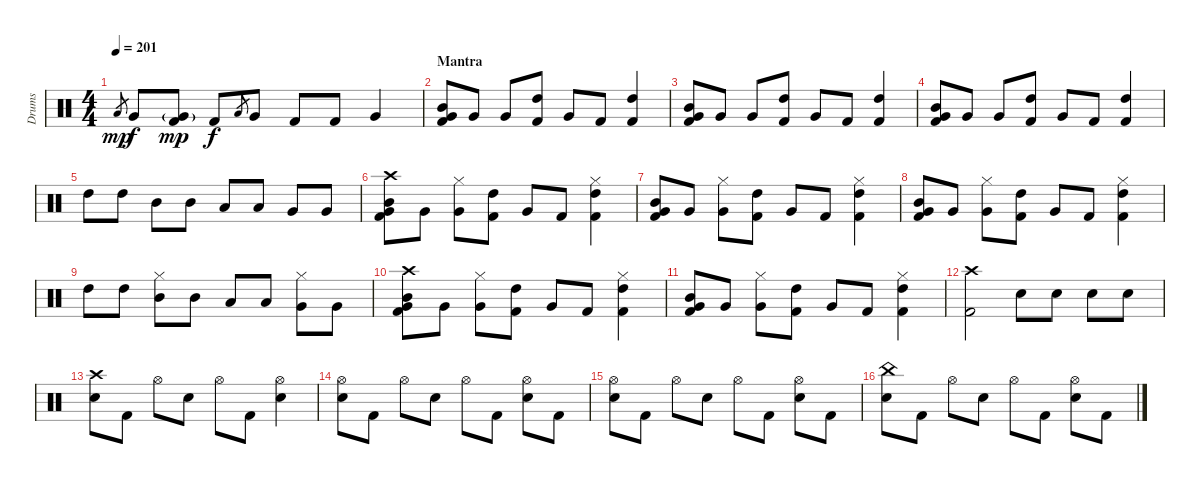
\track ("Drums" "Drums") {instrument percussion}
\staff {score}
\articulation defaults
\ts (4 4)
\tempo 201
\clef neutral
\ks c "Low Tom (hit)".8{gr dy mp} "Very Low Tom (hit)".8{dy f}
("Very Low Tom (hit)"{g} "Kick (hit) 2").8{dy mp} "Kick (hit) 2".8{dy f} "Low Tom (hit)".8{gr} "Very Low Tom (hit)".8 "Kick (hit) 2".8 "Kick (hit) 2".8 "Very Low Tom (hit)".4 |
\section ("" "Mantra")
("Mid Tom (hit)" "Very Low Tom (hit)" "Kick (hit) 2").8 "Very Low Tom (hit)".8 "Very Low Tom (hit)".8 ("High Tom (hit)" "Kick (hit) 2").8 "Very Low Tom (hit)".8 "Kick (hit) 2".8 ("High Tom (hit)" "Kick (hit) 2").4 |
("Mid Tom (hit)" "Very Low Tom (hit)" "Kick (hit) 2").8 "Very Low Tom (hit)".8 "Very Low Tom (hit)".8 ("High Tom (hit)" "Kick (hit) 2").8 "Very Low Tom (hit)".8 "Kick (hit) 2".8 ("High Tom (hit)" "Kick (hit) 2").4 |
("Mid Tom (hit)" "Very Low Tom (hit)" "Kick (hit) 2").8 "Very Low Tom (hit)".8 "Very Low Tom (hit)".8 ("High Tom (hit)" "Kick (hit) 2").8 "Very Low Tom (hit)".8 "Kick (hit) 2".8 ("High Tom (hit)" "Kick (hit) 2").4 |
"High Tom (hit)".8 "High Tom (hit)".8 "Mid Tom (hit)".8 "Mid Tom (hit)".8 "Low Tom (hit)".8 "Low Tom (hit)".8 "Very Low Tom (hit)".8 "Very Low Tom (hit)".8 |
("Crash high (hit)" "Mid Tom (hit)" "Very Low Tom (hit)" "Kick (hit) 2").8 "Very Low Tom (hit)".8 ("Hi-Hat (closed)" "Very Low Tom (hit)").8 ("High Tom (hit)" "Kick (hit) 2").8 "Very Low Tom (hit)".8 "Kick (hit) 2".8 ("Hi-Hat (closed)" "High Tom (hit)" "Kick (hit) 2").4 |
("Mid Tom (hit)" "Very Low Tom (hit)" "Kick (hit) 2").8 "Very Low Tom (hit)".8 ("Hi-Hat (closed)" "Very Low Tom (hit)").8 ("High Tom (hit)" "Kick (hit) 2").8 "Very Low Tom (hit)".8 "Kick (hit) 2".8 ("Hi-Hat (closed)" "High Tom (hit)" "Kick (hit) 2").4 |
("Mid Tom (hit)" "Very Low Tom (hit)" "Kick (hit) 2").8 "Very Low Tom (hit)".8 ("Hi-Hat (closed)" "Very Low Tom (hit)").8 ("High Tom (hit)" "Kick (hit) 2").8 "Very Low Tom (hit)".8 "Kick (hit) 2".8 ("Hi-Hat (closed)" "High Tom (hit)" "Kick (hit) 2").4 |
"High Tom (hit)".8 "High Tom (hit)".8 ("Hi-Hat (closed)" "Mid Tom (hit)").8 "Mid Tom (hit)".8 "Low Tom (hit)".8 "Low Tom (hit)".8 ("Hi-Hat (closed)" "Very Low Tom (hit)").8 "Very Low Tom (hit)".8 |
("Crash high (hit)" "Mid Tom (hit)" "Very Low Tom (hit)" "Kick (hit) 2").8 "Very Low Tom (hit)".8 ("Hi-Hat (closed)" "Very Low Tom (hit)").8 ("High Tom (hit)" "Kick (hit) 2").8 "Very Low Tom (hit)".8 "Kick (hit) 2".8 ("Hi-Hat (closed)" "High Tom (hit)" "Kick (hit) 2").4 |
("Mid Tom (hit)" "Very Low Tom (hit)" "Kick (hit) 2").8 "Very Low Tom (hit)".8 ("Hi-Hat (closed)" "Very Low Tom (hit)").8 ("High Tom (hit)" "Kick (hit) 2").8 "Very Low Tom (hit)".8 "Kick (hit) 2".8 ("Hi-Hat (closed)" "High Tom (hit)" "Kick (hit) 2").4 |
("Crash high (hit)" "Kick (hit) 2").2 "Snare (hit) 2".8 "Snare (hit) 2".8 "Snare (hit) 2".8 "Snare (hit) 2".8 |
("Crash high (hit)" "Snare (hit) 2").8 "Kick (hit) 2".8 "Hi-Hat (open)".8 "Snare (hit) 2".8 "Hi-Hat (open)".8 "Kick (hit) 2".8 ("Hi-Hat (open)" "Snare (hit) 2").4 |
("Hi-Hat (open)" "Snare (hit) 2").8 "Kick (hit) 2".8 "Hi-Hat (open)".8 "Snare (hit) 2".8 "Hi-Hat (open)".8 "Kick (hit) 2".8 ("Hi-Hat (open)" "Snare (hit) 2").8 "Kick (hit) 2".8 |
("Hi-Hat (open)" "Snare (hit) 2").8 "Kick (hit) 2".8 "Hi-Hat (open)".8 "Snare (hit) 2".8 "Hi-Hat (open)".8 "Kick (hit) 2".8 ("Hi-Hat (open)" "Snare (hit) 2").8 "Kick (hit) 2".8 |
("China (hit)" "Snare (hit) 2").8 "Kick (hit) 2".8 "Hi-Hat (open)".8 "Snare (hit) 2".8 "Hi-Hat (open)".8 "Kick (hit) 2".8 ("Hi-Hat (open)" "Snare (hit) 2").8 "Kick (hit) 2".8
